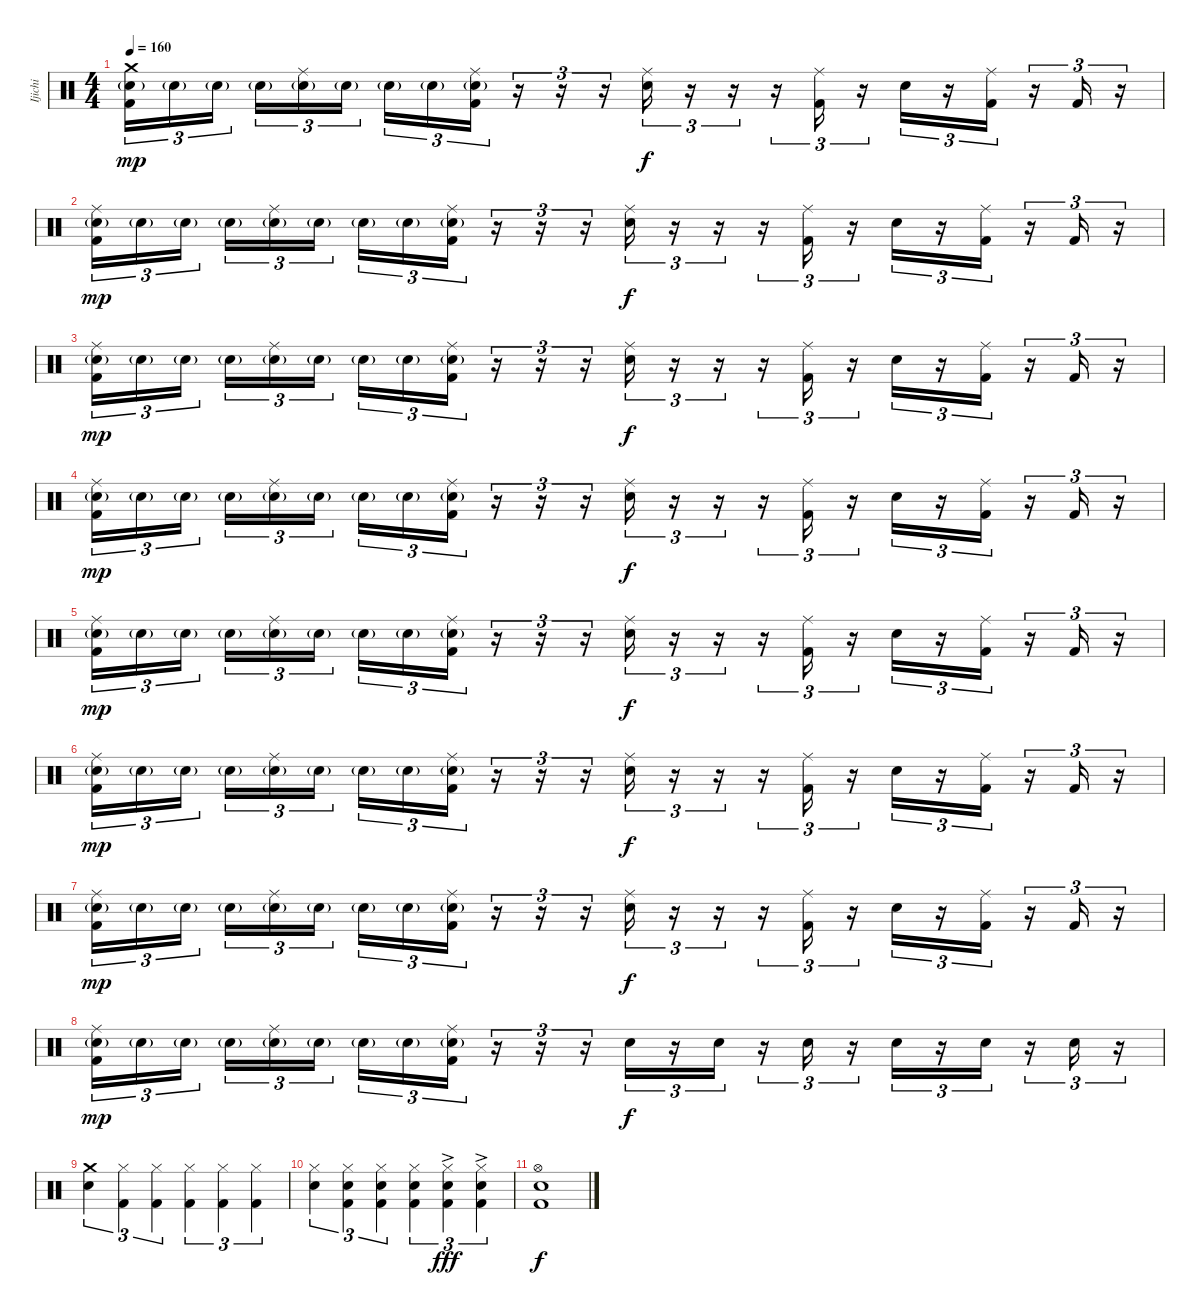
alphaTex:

\track ("Ijichi" "Ijichi") {instrument percussion}
\staff {score}
\articulation defaults
\ts (4 4)
\tempo 160
\clef neutral
\ks c
("Crash medium (hit)" "Electric Snare (hit)"{g} "Kick (hit) 2").16{tu (3 2) dy mp} "Electric Snare (hit)"{g}.16{tu (3 2)} "Electric Snare (hit)"{g}.16{tu (3 2)} "Electric Snare (hit)"{g}.16{tu (3 2)} ("Ride (middle)" "Electric Snare (hit)"{g}).16{tu (3 2)} "Electric Snare (hit)"{g}.16{tu (3 2)} "Electric Snare (hit)"{g}.16{tu (3 2)} "Electric Snare (hit)"{g}.16{tu (3 2)} ("Ride (middle)" "Electric Snare (hit)"{g} "Kick (hit) 2").16{tu (3 2)} r.16{tu (3 2)} r.16{tu (3 2)} r.16{tu (3 2)} ("Ride (middle)" "Electric Snare (hit)").16{tu (3 2) dy f} r.16{tu (3 2)} r.16{tu (3 2)} r.16{tu (3 2)} ("Ride (middle)" "Kick (hit) 2").16{tu (3 2)} r.16{tu (3 2)} "Electric Snare (hit)".16{tu (3 2)} r.16{tu (3 2)} ("Ride (middle)" "Kick (hit) 2").16{tu (3 2)} r.16{tu (3 2)} "Kick (hit) 2".16{tu (3 2)} r.16{tu (3 2)} |
("Ride (middle)" "Electric Snare (hit)"{g} "Kick (hit) 2").16{tu (3 2) dy mp} "Electric Snare (hit)"{g}.16{tu (3 2)} "Electric Snare (hit)"{g}.16{tu (3 2)} "Electric Snare (hit)"{g}.16{tu (3 2)} ("Ride (middle)" "Electric Snare (hit)"{g}).16{tu (3 2)} "Electric Snare (hit)"{g}.16{tu (3 2)} "Electric Snare (hit)"{g}.16{tu (3 2)} "Electric Snare (hit)"{g}.16{tu (3 2)} ("Ride (middle)" "Electric Snare (hit)"{g} "Kick (hit) 2").16{tu (3 2)} r.16{tu (3 2)} r.16{tu (3 2)} r.16{tu (3 2)} ("Ride (middle)" "Electric Snare (hit)").16{tu (3 2) dy f} r.16{tu (3 2)} r.16{tu (3 2)} r.16{tu (3 2)} ("Ride (middle)" "Kick (hit) 2").16{tu (3 2)} r.16{tu (3 2)} "Electric Snare (hit)".16{tu (3 2)} r.16{tu (3 2)} ("Ride (middle)" "Kick (hit) 2").16{tu (3 2)} r.16{tu (3 2)} "Kick (hit) 2".16{tu (3 2)} r.16{tu (3 2)} |
("Ride (middle)" "Electric Snare (hit)"{g} "Kick (hit) 2").16{tu (3 2) dy mp} "Electric Snare (hit)"{g}.16{tu (3 2)} "Electric Snare (hit)"{g}.16{tu (3 2)} "Electric Snare (hit)"{g}.16{tu (3 2)} ("Ride (middle)" "Electric Snare (hit)"{g}).16{tu (3 2)} "Electric Snare (hit)"{g}.16{tu (3 2)} "Electric Snare (hit)"{g}.16{tu (3 2)} "Electric Snare (hit)"{g}.16{tu (3 2)} ("Ride (middle)" "Electric Snare (hit)"{g} "Kick (hit) 2").16{tu (3 2)} r.16{tu (3 2)} r.16{tu (3 2)} r.16{tu (3 2)} ("Ride (middle)" "Electric Snare (hit)").16{tu (3 2) dy f} r.16{tu (3 2)} r.16{tu (3 2)} r.16{tu (3 2)} ("Ride (middle)" "Kick (hit) 2").16{tu (3 2)} r.16{tu (3 2)} "Electric Snare (hit)".16{tu (3 2)} r.16{tu (3 2)} ("Ride (middle)" "Kick (hit) 2").16{tu (3 2)} r.16{tu (3 2)} "Kick (hit) 2".16{tu (3 2)} r.16{tu (3 2)} |
("Ride (middle)" "Electric Snare (hit)"{g} "Kick (hit) 2").16{tu (3 2) dy mp} "Electric Snare (hit)"{g}.16{tu (3 2)} "Electric Snare (hit)"{g}.16{tu (3 2)} "Electric Snare (hit)"{g}.16{tu (3 2)} ("Ride (middle)" "Electric Snare (hit)"{g}).16{tu (3 2)} "Electric Snare (hit)"{g}.16{tu (3 2)} "Electric Snare (hit)"{g}.16{tu (3 2)} "Electric Snare (hit)"{g}.16{tu (3 2)} ("Ride (middle)" "Electric Snare (hit)"{g} "Kick (hit) 2").16{tu (3 2)} r.16{tu (3 2)} r.16{tu (3 2)} r.16{tu (3 2)} ("Ride (middle)" "Electric Snare (hit)").16{tu (3 2) dy f} r.16{tu (3 2)} r.16{tu (3 2)} r.16{tu (3 2)} ("Ride (middle)" "Kick (hit) 2").16{tu (3 2)} r.16{tu (3 2)} "Electric Snare (hit)".16{tu (3 2)} r.16{tu (3 2)} ("Ride (middle)" "Kick (hit) 2").16{tu (3 2)} r.16{tu (3 2)} "Kick (hit) 2".16{tu (3 2)} r.16{tu (3 2)} |
("Ride (middle)" "Electric Snare (hit)"{g} "Kick (hit) 2").16{tu (3 2) dy mp} "Electric Snare (hit)"{g}.16{tu (3 2)} "Electric Snare (hit)"{g}.16{tu (3 2)} "Electric Snare (hit)"{g}.16{tu (3 2)} ("Ride (middle)" "Electric Snare (hit)"{g}).16{tu (3 2)} "Electric Snare (hit)"{g}.16{tu (3 2)} "Electric Snare (hit)"{g}.16{tu (3 2)} "Electric Snare (hit)"{g}.16{tu (3 2)} ("Ride (middle)" "Electric Snare (hit)"{g} "Kick (hit) 2").16{tu (3 2)} r.16{tu (3 2)} r.16{tu (3 2)} r.16{tu (3 2)} ("Ride (middle)" "Electric Snare (hit)").16{tu (3 2) dy f} r.16{tu (3 2)} r.16{tu (3 2)} r.16{tu (3 2)} ("Ride (middle)" "Kick (hit) 2").16{tu (3 2)} r.16{tu (3 2)} "Electric Snare (hit)".16{tu (3 2)} r.16{tu (3 2)} ("Ride (middle)" "Kick (hit) 2").16{tu (3 2)} r.16{tu (3 2)} "Kick (hit) 2".16{tu (3 2)} r.16{tu (3 2)} |
("Ride (middle)" "Electric Snare (hit)"{g} "Kick (hit) 2").16{tu (3 2) dy mp} "Electric Snare (hit)"{g}.16{tu (3 2)} "Electric Snare (hit)"{g}.16{tu (3 2)} "Electric Snare (hit)"{g}.16{tu (3 2)} ("Ride (middle)" "Electric Snare (hit)"{g}).16{tu (3 2)} "Electric Snare (hit)"{g}.16{tu (3 2)} "Electric Snare (hit)"{g}.16{tu (3 2)} "Electric Snare (hit)"{g}.16{tu (3 2)} ("Ride (middle)" "Electric Snare (hit)"{g} "Kick (hit) 2").16{tu (3 2)} r.16{tu (3 2)} r.16{tu (3 2)} r.16{tu (3 2)} ("Ride (middle)" "Electric Snare (hit)").16{tu (3 2) dy f} r.16{tu (3 2)} r.16{tu (3 2)} r.16{tu (3 2)} ("Ride (middle)" "Kick (hit) 2").16{tu (3 2)} r.16{tu (3 2)} "Electric Snare (hit)".16{tu (3 2)} r.16{tu (3 2)} ("Ride (middle)" "Kick (hit) 2").16{tu (3 2)} r.16{tu (3 2)} "Kick (hit) 2".16{tu (3 2)} r.16{tu (3 2)} |
("Ride (middle)" "Electric Snare (hit)"{g} "Kick (hit) 2").16{tu (3 2) dy mp} "Electric Snare (hit)"{g}.16{tu (3 2)} "Electric Snare (hit)"{g}.16{tu (3 2)} "Electric Snare (hit)"{g}.16{tu (3 2)} ("Ride (middle)" "Electric Snare (hit)"{g}).16{tu (3 2)} "Electric Snare (hit)"{g}.16{tu (3 2)} "Electric Snare (hit)"{g}.16{tu (3 2)} "Electric Snare (hit)"{g}.16{tu (3 2)} ("Ride (middle)" "Electric Snare (hit)"{g} "Kick (hit) 2").16{tu (3 2)} r.16{tu (3 2)} r.16{tu (3 2)} r.16{tu (3 2)} ("Ride (middle)" "Electric Snare (hit)").16{tu (3 2) dy f} r.16{tu (3 2)} r.16{tu (3 2)} r.16{tu (3 2)} ("Ride (middle)" "Kick (hit) 2").16{tu (3 2)} r.16{tu (3 2)} "Electric Snare (hit)".16{tu (3 2)} r.16{tu (3 2)} ("Ride (middle)" "Kick (hit) 2").16{tu (3 2)} r.16{tu (3 2)} "Kick (hit) 2".16{tu (3 2)} r.16{tu (3 2)} |
("Ride (middle)" "Electric Snare (hit)"{g} "Kick (hit) 2").16{tu (3 2) dy mp} "Electric Snare (hit)"{g}.16{tu (3 2)} "Electric Snare (hit)"{g}.16{tu (3 2)} "Electric Snare (hit)"{g}.16{tu (3 2)} ("Ride (middle)" "Electric Snare (hit)"{g}).16{tu (3 2)} "Electric Snare (hit)"{g}.16{tu (3 2)} "Electric Snare (hit)"{g}.16{tu (3 2)} "Electric Snare (hit)"{g}.16{tu (3 2)} ("Ride (middle)" "Electric Snare (hit)"{g} "Kick (hit) 2").16{tu (3 2)} r.16{tu (3 2)} r.16{tu (3 2)} r.16{tu (3 2)} "Electric Snare (hit)".16{tu (3 2) dy f} r.16{tu (3 2)} "Electric Snare (hit)".16{tu (3 2)} r.16{tu (3 2)} "Electric Snare (hit)".16{tu (3 2)} r.16{tu (3 2)} "Electric Snare (hit)".16{tu (3 2)} r.16{tu (3 2)} "Electric Snare (hit)".16{tu (3 2)} r.16{tu (3 2)} "Electric Snare (hit)".16{tu (3 2)} r.16{tu (3 2)} |
("Crash medium (hit)" "Electric Snare (hit)").4{tu (3 2)} ("Hi-Hat (closed)" "Kick (hit) 2").4{tu (3 2)} ("Hi-Hat (closed)" "Kick (hit) 2").4{tu (3 2)} ("Hi-Hat (closed)" "Kick (hit) 2").4{tu (3 2)} ("Hi-Hat (closed)" "Kick (hit) 2").4{tu (3 2)} ("Hi-Hat (closed)" "Kick (hit) 2").4{tu (3 2)} |
("Hi-Hat (closed)" "Electric Snare (hit)").4{tu (3 2)} ("Hi-Hat (closed)" "Electric Snare (hit)" "Kick (hit) 2").4{tu (3 2)} ("Hi-Hat (closed)" "Electric Snare (hit)" "Kick (hit) 2").4{tu (3 2)} ("Hi-Hat (closed)" "Electric Snare (hit)" "Kick (hit) 2").4{tu (3 2)} ("Hi-Hat (closed)" "Electric Snare (hit)"{ac} "Kick (hit) 2").4{tu (3 2) dy fff} ("Hi-Hat (closed)" "Electric Snare (hit)"{ac} "Kick (hit) 2").4{tu (3 2)} |
("Hi-Hat (open)" "Electric Snare (hit)" "Kick (hit) 2").1{dy f}
